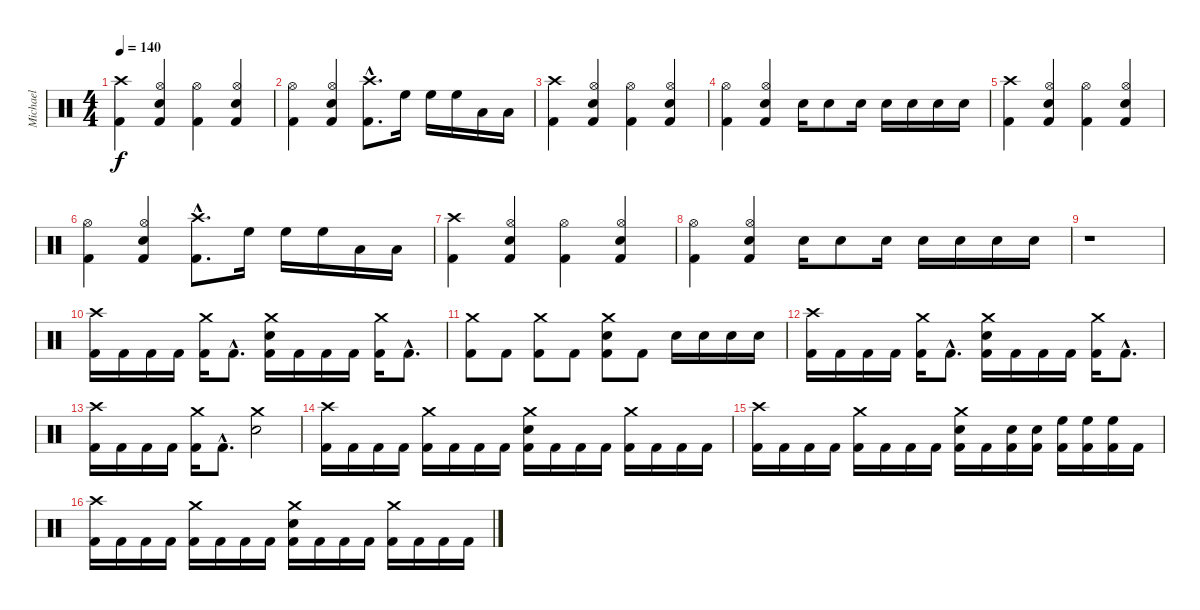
\track ("Michael" "Michael") {instrument percussion}
\staff {score}
\articulation defaults
\ts (4 4)
\tempo 140
\clef neutral
\ks c
("Kick (hit) 2" "Crash high (hit)").4{dy f} ("Kick (hit) 2" "Hi-Hat (open)" "Electric Snare (hit)").4 ("Kick (hit) 2" "Hi-Hat (open)").4 ("Kick (hit) 2" "Hi-Hat (open)" "Electric Snare (hit)").4 |
("Kick (hit) 2" "Hi-Hat (open)").4 ("Kick (hit) 2" "Hi-Hat (open)" "Electric Snare (hit)").4 ("Crash high (hit)"{hac} "Kick (hit) 2"{hac}).8{d} "High Floor Tom (hit)".16 "High Floor Tom (hit)".16 "High Floor Tom (hit)".16 "Low Tom (hit)".16 "Low Tom (hit)".16 |
("Kick (hit) 2" "Crash high (hit)").4 ("Kick (hit) 2" "Hi-Hat (open)" "Electric Snare (hit)").4 ("Kick (hit) 2" "Hi-Hat (open)").4 ("Kick (hit) 2" "Hi-Hat (open)" "Electric Snare (hit)").4 |
("Kick (hit) 2" "Hi-Hat (open)").4 ("Kick (hit) 2" "Hi-Hat (open)" "Electric Snare (hit)").4 "Electric Snare (hit)".16 "Electric Snare (hit)".8 "Electric Snare (hit)".16 "Electric Snare (hit)".16 "Electric Snare (hit)".16 "Electric Snare (hit)".16 "Electric Snare (hit)".16 |
("Kick (hit) 2" "Crash high (hit)").4 ("Kick (hit) 2" "Hi-Hat (open)" "Electric Snare (hit)").4 ("Kick (hit) 2" "Hi-Hat (open)").4 ("Kick (hit) 2" "Hi-Hat (open)" "Electric Snare (hit)").4 |
("Kick (hit) 2" "Hi-Hat (open)").4 ("Kick (hit) 2" "Hi-Hat (open)" "Electric Snare (hit)").4 ("Crash high (hit)"{hac} "Kick (hit) 2"{hac}).8{d} "High Floor Tom (hit)".16 "High Floor Tom (hit)".16 "High Floor Tom (hit)".16 "Low Tom (hit)".16 "Low Tom (hit)".16 |
("Kick (hit) 2" "Crash high (hit)").4 ("Kick (hit) 2" "Hi-Hat (open)" "Electric Snare (hit)").4 ("Kick (hit) 2" "Hi-Hat (open)").4 ("Kick (hit) 2" "Hi-Hat (open)" "Electric Snare (hit)").4 |
("Kick (hit) 2" "Hi-Hat (open)").4 ("Kick (hit) 2" "Hi-Hat (open)" "Electric Snare (hit)").4 "Electric Snare (hit)".16 "Electric Snare (hit)".8 "Electric Snare (hit)".16 "Electric Snare (hit)".16 "Electric Snare (hit)".16 "Electric Snare (hit)".16 "Electric Snare (hit)".16 |
r.1 |
("Crash high (hit)" "Kick (hit) 2").16 "Kick (hit) 2".16 "Kick (hit) 2".16 "Kick (hit) 2".16 ("Crash medium (hit)" "Kick (hit) 2").16 "Kick (hit) 2"{hac}.8{d} ("Crash medium (hit)" "Electric Snare (hit)" "Kick (hit) 2").16 "Kick (hit) 2".16 "Kick (hit) 2".16 "Kick (hit) 2".16 ("Crash medium (hit)" "Kick (hit) 2").16 "Kick (hit) 2"{hac}.8{d} |
("Crash medium (hit)" "Kick (hit) 2").8 "Kick (hit) 2".8 ("Crash medium (hit)" "Kick (hit) 2").8 "Kick (hit) 2".8 ("Crash medium (hit)" "Electric Snare (hit)" "Kick (hit) 2").8 "Kick (hit) 2".8 "Electric Snare (hit)".16 "Electric Snare (hit)".16 "Electric Snare (hit)".16 "Electric Snare (hit)".16 |
("Crash high (hit)" "Kick (hit) 2").16 "Kick (hit) 2".16 "Kick (hit) 2".16 "Kick (hit) 2".16 ("Crash medium (hit)" "Kick (hit) 2").16 "Kick (hit) 2"{hac}.8{d} ("Crash medium (hit)" "Electric Snare (hit)" "Kick (hit) 2").16 "Kick (hit) 2".16 "Kick (hit) 2".16 "Kick (hit) 2".16 ("Crash medium (hit)" "Kick (hit) 2").16 "Kick (hit) 2"{hac}.8{d} |
("Crash high (hit)" "Kick (hit) 2").16 "Kick (hit) 2".16 "Kick (hit) 2".16 "Kick (hit) 2".16 ("Crash medium (hit)" "Kick (hit) 2").16 "Kick (hit) 2"{hac}.8{d} ("Crash medium (hit)" "Electric Snare (hit)").2 |
("Crash high (hit)" "Kick (hit) 2").16 "Kick (hit) 2".16 "Kick (hit) 2".16 "Kick (hit) 2".16 ("Crash medium (hit)" "Kick (hit) 2").16 "Kick (hit) 2".16 "Kick (hit) 2".16 "Kick (hit) 2".16 ("Crash medium (hit)" "Electric Snare (hit)" "Kick (hit) 2").16 "Kick (hit) 2".16 "Kick (hit) 2".16 "Kick (hit) 2".16 ("Crash medium (hit)" "Kick (hit) 2").16 "Kick (hit) 2".16 "Kick (hit) 2".16 "Kick (hit) 2".16 |
("Crash high (hit)" "Kick (hit) 2").16 "Kick (hit) 2".16 "Kick (hit) 2".16 "Kick (hit) 2".16 ("Crash medium (hit)" "Kick (hit) 2").16 "Kick (hit) 2".16 "Kick (hit) 2".16 "Kick (hit) 2".16 ("Crash medium (hit)" "Electric Snare (hit)" "Kick (hit) 2").16 "Kick (hit) 2".16 ("Electric Snare (hit)" "Kick (hit) 2").16 ("Electric Snare (hit)" "Kick (hit) 2").16 ("High Floor Tom (hit)" "Kick (hit) 2").16 ("High Floor Tom (hit)" "Kick (hit) 2").16 ("High Floor Tom (hit)" "Kick (hit) 2").16 "Kick (hit) 2".16 |
("Crash high (hit)" "Kick (hit) 2").16 "Kick (hit) 2".16 "Kick (hit) 2".16 "Kick (hit) 2".16 ("Crash medium (hit)" "Kick (hit) 2").16 "Kick (hit) 2".16 "Kick (hit) 2".16 "Kick (hit) 2".16 ("Crash medium (hit)" "Electric Snare (hit)" "Kick (hit) 2").16 "Kick (hit) 2".16 "Kick (hit) 2".16 "Kick (hit) 2".16 ("Crash medium (hit)" "Kick (hit) 2").16 "Kick (hit) 2".16 "Kick (hit) 2".16 "Kick (hit) 2".16
